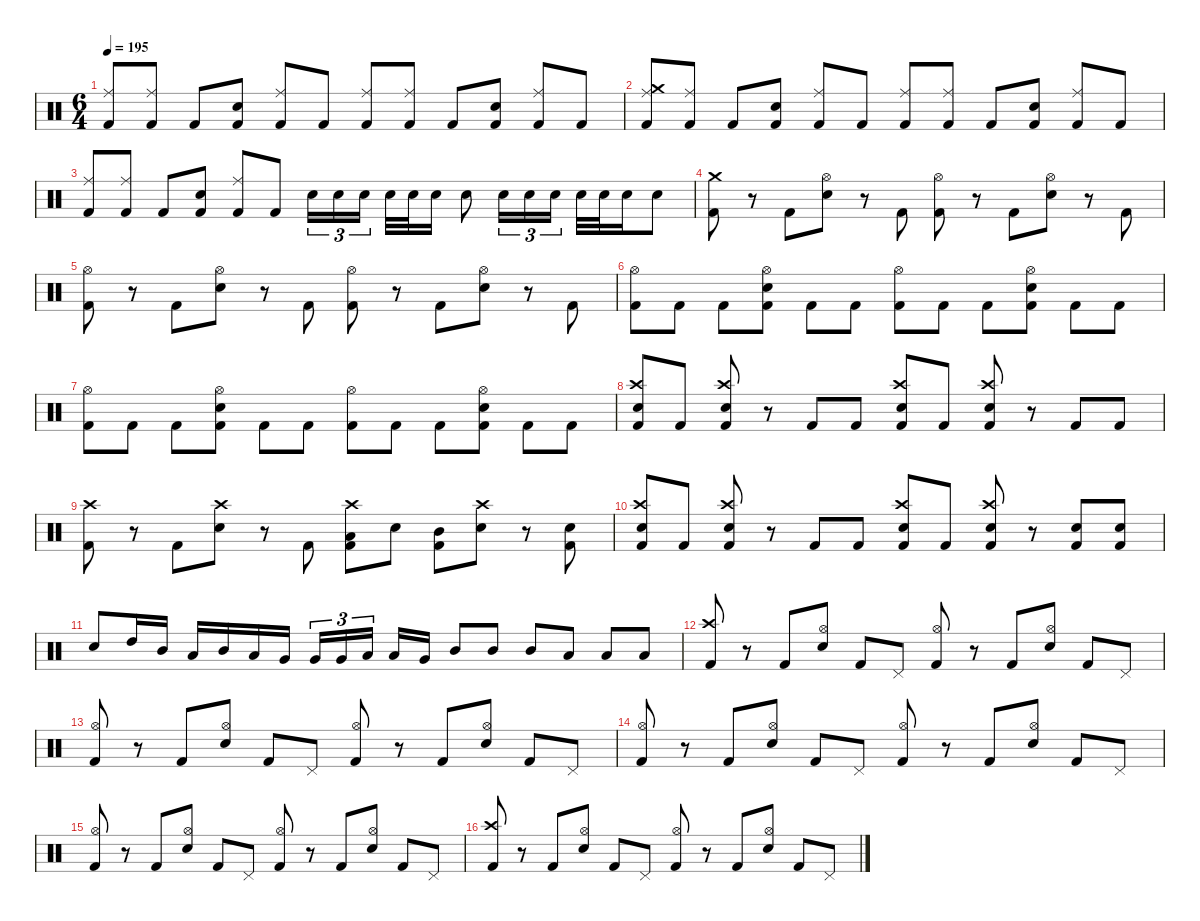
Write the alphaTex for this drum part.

\defaultSystemsLayout 4
\hideDynamics
\bracketExtendMode nobrackets
\singleTrackTrackNamePolicy hidden
\multiTrackTrackNamePolicy hidden
\firstSystemTrackNameMode fullname
\firstSystemTrackNameOrientation horizontal
\otherSystemsTrackNameOrientation horizontal
\track ("Drums" "drm.") {instrument percussion}
\staff {score}
\articulation defaults
\ts (6 4)
\tempo 195
\clef neutral
\ks c
("Ride (middle)" "Kick (hit) 2").8{dy f beam Up} ("Ride (middle)" "Kick (hit) 2").8{beam Up} "Kick (hit) 2".8{beam Up} ("Snare (hit) 2" "Kick (hit) 2").8{beam Up} ("Ride (middle)" "Kick (hit) 2").8{beam Up} "Kick (hit) 2".8{beam Up} ("Ride (middle)" "Kick (hit) 2").8{beam Up} ("Ride (middle)" "Kick (hit) 2").8{beam Up} "Kick (hit) 2".8{beam Up} ("Snare (hit) 2" "Kick (hit) 2").8{beam Up} ("Ride (middle)" "Kick (hit) 2").8{beam Up} "Kick (hit) 2".8{beam Up} |
("Ride (middle)" "Crash medium (hit)" "Kick (hit) 2").8{beam Up} ("Ride (middle)" "Kick (hit) 2").8{beam Up} "Kick (hit) 2".8{beam Up} ("Snare (hit) 2" "Kick (hit) 2").8{beam Up} ("Ride (middle)" "Kick (hit) 2").8{beam Up} "Kick (hit) 2".8{beam Up} ("Ride (middle)" "Kick (hit) 2").8{beam Up} ("Ride (middle)" "Kick (hit) 2").8{beam Up} "Kick (hit) 2".8{beam Up} ("Snare (hit) 2" "Kick (hit) 2").8{beam Up} ("Ride (middle)" "Kick (hit) 2").8{beam Up} "Kick (hit) 2".8{beam Up} |
("Ride (middle)" "Kick (hit) 2").8{beam Up} ("Ride (middle)" "Kick (hit) 2").8{beam Up} "Kick (hit) 2".8{beam Up} ("Snare (hit) 2" "Kick (hit) 2").8{beam Up} ("Ride (middle)" "Kick (hit) 2").8{beam Up} "Kick (hit) 2".8{beam Up} "Snare (hit) 2".16{tu (3 2) beam Down} "Snare (hit) 2".16{tu (3 2) beam Down} "Snare (hit) 2".16{tu (3 2) beam Down} "Snare (hit) 2".32{beam Down} "Snare (hit) 2".32{beam Down} "Snare (hit) 2".16{beam Down} "Snare (hit) 2".8{beam Down} "Snare (hit) 2".16{tu (3 2) beam Down} "Snare (hit) 2".16{tu (3 2) beam Down} "Snare (hit) 2".16{tu (3 2) beam Down} "Snare (hit) 2".32{beam Down} "Snare (hit) 2".32{beam Down} "Snare (hit) 2".16{beam Down} "Snare (hit) 2".8{beam Down} |
("Crash medium (hit)" "Kick (hit) 2").8{beam Down} r.8{beam Down} "Kick (hit) 2".8{beam Down} ("Hi-Hat (open)" "Snare (hit) 2").8{beam Down} r.8{beam Down} "Kick (hit) 2".8{beam Down} ("Hi-Hat (open)" "Kick (hit) 2").8{beam Down} r.8{beam Down} "Kick (hit) 2".8{beam Down} ("Hi-Hat (open)" "Snare (hit) 2").8{beam Down} r.8{beam Down} "Kick (hit) 2".8{beam Down} |
("Hi-Hat (open)" "Kick (hit) 2").8{beam Down} r.8{beam Down} "Kick (hit) 2".8{beam Down} ("Hi-Hat (open)" "Snare (hit) 2").8{beam Down} r.8{beam Down} "Kick (hit) 2".8{beam Down} ("Hi-Hat (open)" "Kick (hit) 2").8{beam Down} r.8{beam Down} "Kick (hit) 2".8{beam Down} ("Hi-Hat (open)" "Snare (hit) 2").8{beam Down} r.8{beam Down} "Kick (hit) 2".8{beam Down} |
("Hi-Hat (open)" "Kick (hit) 2").8{beam Down} "Kick (hit) 2".8{beam Down} "Kick (hit) 2".8{beam Down} ("Hi-Hat (open)" "Snare (hit) 2" "Kick (hit) 2").8{beam Down} "Kick (hit) 2".8{beam Down} "Kick (hit) 2".8{beam Down} ("Hi-Hat (open)" "Kick (hit) 2").8{beam Down} "Kick (hit) 2".8{beam Down} "Kick (hit) 2".8{beam Down} ("Hi-Hat (open)" "Snare (hit) 2" "Kick (hit) 2").8{beam Down} "Kick (hit) 2".8{beam Down} "Kick (hit) 2".8{beam Down} |
("Hi-Hat (open)" "Kick (hit) 2").8{beam Down} "Kick (hit) 2".8{beam Down} "Kick (hit) 2".8{beam Down} ("Hi-Hat (open)" "Snare (hit) 2" "Kick (hit) 2").8{beam Down} "Kick (hit) 2".8{beam Down} "Kick (hit) 2".8{beam Down} ("Hi-Hat (open)" "Kick (hit) 2").8{beam Down} "Kick (hit) 2".8{beam Down} "Kick (hit) 2".8{beam Down} ("Hi-Hat (open)" "Snare (hit) 2" "Kick (hit) 2").8{beam Down} "Kick (hit) 2".8{beam Down} "Kick (hit) 2".8{beam Down} |
("Crash high (hit)" "Snare (hit) 2" "Kick (hit) 2").8{beam Up} "Kick (hit) 2".8{beam Up} ("Crash high (hit)" "Snare (hit) 2" "Kick (hit) 2").8{beam Up} r.8{beam Up} "Kick (hit) 2".8{beam Up} "Kick (hit) 2".8{beam Up} ("Crash high (hit)" "Snare (hit) 2" "Kick (hit) 2").8{beam Up} "Kick (hit) 2".8{beam Up} ("Crash high (hit)" "Snare (hit) 2" "Kick (hit) 2").8{beam Up} r.8{beam Up} "Kick (hit) 2".8{beam Up} "Kick (hit) 2".8{beam Up} |
("Crash high (hit)" "Kick (hit) 2").8{beam Down} r.8{beam Down} "Kick (hit) 2".8{beam Down} ("Crash high (hit)" "Snare (hit) 2").8{beam Down} r.8{beam Down} "Kick (hit) 2".8{beam Down} ("Crash high (hit)" "Low Tom (hit)" "Kick (hit) 2").8{beam Down} "Snare (hit) 2".8{beam Down} ("Mid Tom (hit)" "Kick (hit) 2").8{beam Down} ("Crash high (hit)" "Snare (hit) 2").8{beam Down} r.8{beam Down} ("Snare (hit) 2" "Kick (hit) 2").8{beam Down} |
("Crash high (hit)" "Snare (hit) 2" "Kick (hit) 2").8{beam Up} "Kick (hit) 2".8{beam Up} ("Crash high (hit)" "Snare (hit) 2" "Kick (hit) 2").8{beam Up} r.8{beam Up} "Kick (hit) 2".8{beam Up} "Kick (hit) 2".8{beam Up} ("Crash high (hit)" "Snare (hit) 2" "Kick (hit) 2").8{beam Up} "Kick (hit) 2".8{beam Up} ("Crash high (hit)" "Snare (hit) 2" "Kick (hit) 2").8{beam Up} r.8{beam Up} ("Snare (hit) 2" "Kick (hit) 2").8{beam Up} ("Snare (hit) 2" "Kick (hit) 2").8{beam Up} |
"Snare (hit) 2".8{beam Up} "High Tom (hit)".16{beam Up} "Mid Tom (hit)".16{beam Up} "Low Tom (hit)".16{beam Up} "Mid Tom (hit)".16{beam Up} "Low Tom (hit)".16{beam Up} "Very Low Tom (hit)".16{beam Up} "Very Low Tom (hit)".16{tu (3 2) beam Up} "Very Low Tom (hit)".16{tu (3 2) beam Up} "Low Floor Tom (hit)".16{tu (3 2) beam Up} "Low Tom (hit)".16{beam Up} "Very Low Tom (hit)".16{beam Up} "Mid Tom (hit)".8{beam Up} "Mid Tom (hit)".8{beam Up} "Mid Tom (hit)".8{beam Up} "Low Tom (hit)".8{beam Up} "Low Tom (hit)".8{beam Up} "Low Tom (hit)".8{beam Up} |
("Crash high (hit)" "Kick (hit) 2").8{beam Up} r.8{beam Up} "Kick (hit) 2".8{beam Up} ("Hi-Hat (open)" "Snare (hit) 2").8{beam Up} "Kick (hit) 2".8{beam Up} "Pedal Hi-Hat (hit)".8{beam Up} ("Hi-Hat (open)" "Kick (hit) 2").8{beam Up} r.8{beam Up} "Kick (hit) 2".8{beam Up} ("Hi-Hat (open)" "Snare (hit) 2").8{beam Up} "Kick (hit) 2".8{beam Up} "Pedal Hi-Hat (hit)".8{beam Up} |
("Hi-Hat (open)" "Kick (hit) 2").8{beam Up} r.8{beam Up} "Kick (hit) 2".8{beam Up} ("Hi-Hat (open)" "Snare (hit) 2").8{beam Up} "Kick (hit) 2".8{beam Up} "Pedal Hi-Hat (hit)".8{beam Up} ("Hi-Hat (open)" "Kick (hit) 2").8{beam Up} r.8{beam Up} "Kick (hit) 2".8{beam Up} ("Hi-Hat (open)" "Snare (hit) 2").8{beam Up} "Kick (hit) 2".8{beam Up} "Pedal Hi-Hat (hit)".8{beam Up} |
("Hi-Hat (open)" "Kick (hit) 2").8{beam Up} r.8{beam Up} "Kick (hit) 2".8{beam Up} ("Hi-Hat (open)" "Snare (hit) 2").8{beam Up} "Kick (hit) 2".8{beam Up} "Pedal Hi-Hat (hit)".8{beam Up} ("Hi-Hat (open)" "Kick (hit) 2").8{beam Up} r.8{beam Up} "Kick (hit) 2".8{beam Up} ("Hi-Hat (open)" "Snare (hit) 2").8{beam Up} "Kick (hit) 2".8{beam Up} "Pedal Hi-Hat (hit)".8{beam Up} |
("Hi-Hat (open)" "Kick (hit) 2").8{beam Up} r.8{beam Up} "Kick (hit) 2".8{beam Up} ("Hi-Hat (open)" "Snare (hit) 2").8{beam Up} "Kick (hit) 2".8{beam Up} "Pedal Hi-Hat (hit)".8{beam Up} ("Hi-Hat (open)" "Kick (hit) 2").8{beam Up} r.8{beam Up} "Kick (hit) 2".8{beam Up} ("Hi-Hat (open)" "Snare (hit) 2").8{beam Up} "Kick (hit) 2".8{beam Up} "Pedal Hi-Hat (hit)".8{beam Up} |
("Crash high (hit)" "Kick (hit) 2").8{beam Up} r.8{beam Up} "Kick (hit) 2".8{beam Up} ("Hi-Hat (open)" "Snare (hit) 2").8{beam Up} "Kick (hit) 2".8{beam Up} "Pedal Hi-Hat (hit)".8{beam Up} ("Hi-Hat (open)" "Kick (hit) 2").8{beam Up} r.8{beam Up} "Kick (hit) 2".8{beam Up} ("Hi-Hat (open)" "Snare (hit) 2").8{beam Up} "Kick (hit) 2".8{beam Up} "Pedal Hi-Hat (hit)".8{beam Up}
